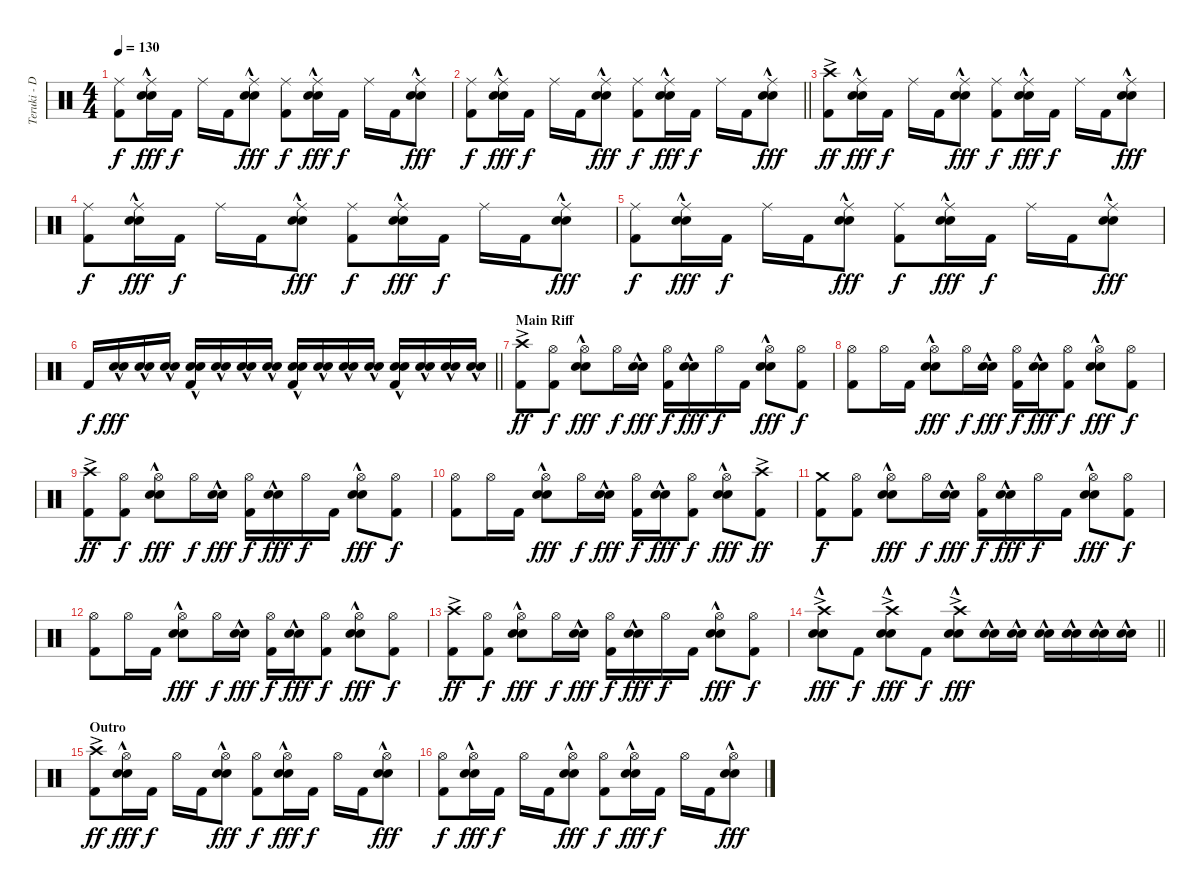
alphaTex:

\track ("Teruki - Drums" "Teruki - D") {instrument percussion}
\staff {score}
\articulation defaults
\ts (4 4)
\tempo 130
\clef neutral
\ks c
("Ride (middle)" "Kick (hit) 2").8{dy f} ("Ride (middle)" "Electric Snare (hit)"{hac} "Snare (hit) 2").16{dy fff} "Kick (hit) 2".16{dy f} "Ride (middle)".16 "Kick (hit) 2".16 ("Ride (middle)" "Electric Snare (hit)"{hac} "Snare (hit) 2").8{dy fff} ("Ride (middle)" "Kick (hit) 2").8{dy f} ("Ride (middle)" "Electric Snare (hit)"{hac} "Snare (hit) 2").16{dy fff} "Kick (hit) 2".16{dy f} "Ride (middle)".16 "Kick (hit) 2".16 ("Ride (middle)" "Electric Snare (hit)"{hac} "Snare (hit) 2").8{dy fff} |
\barLineRight lightlight
("Ride (middle)" "Kick (hit) 2").8{dy f} ("Ride (middle)" "Electric Snare (hit)"{hac} "Snare (hit) 2").16{dy fff} "Kick (hit) 2".16{dy f} "Ride (middle)".16 "Kick (hit) 2".16 ("Ride (middle)" "Electric Snare (hit)"{hac} "Snare (hit) 2").8{dy fff} ("Ride (middle)" "Kick (hit) 2").8{dy f} ("Ride (middle)" "Electric Snare (hit)"{hac} "Snare (hit) 2").16{dy fff} "Kick (hit) 2".16{dy f} "Ride (middle)".16 "Kick (hit) 2".16 ("Ride (middle)" "Electric Snare (hit)"{hac} "Snare (hit) 2").8{dy fff} |
("Crash high (hit)"{ac} "Kick (hit) 2").8{dy ff} ("Ride (middle)" "Electric Snare (hit)"{hac} "Snare (hit) 2").16{dy fff} "Kick (hit) 2".16{dy f} "Ride (middle)".16 "Kick (hit) 2".16 ("Ride (middle)" "Electric Snare (hit)"{hac} "Snare (hit) 2").8{dy fff} ("Ride (middle)" "Kick (hit) 2").8{dy f} ("Ride (middle)" "Electric Snare (hit)"{hac} "Snare (hit) 2").16{dy fff} "Kick (hit) 2".16{dy f} "Ride (middle)".16 "Kick (hit) 2".16 ("Ride (middle)" "Electric Snare (hit)"{hac} "Snare (hit) 2").8{dy fff} |
("Ride (middle)" "Kick (hit) 2").8{dy f} ("Ride (middle)" "Electric Snare (hit)"{hac} "Snare (hit) 2").16{dy fff} "Kick (hit) 2".16{dy f} "Ride (middle)".16 "Kick (hit) 2".16 ("Ride (middle)" "Electric Snare (hit)"{hac} "Snare (hit) 2").8{dy fff} ("Ride (middle)" "Kick (hit) 2").8{dy f} ("Ride (middle)" "Electric Snare (hit)"{hac} "Snare (hit) 2").16{dy fff} "Kick (hit) 2".16{dy f} "Ride (middle)".16 "Kick (hit) 2".16 ("Ride (middle)" "Electric Snare (hit)"{hac} "Snare (hit) 2").8{dy fff} |
("Ride (middle)" "Kick (hit) 2").8{dy f} ("Ride (middle)" "Electric Snare (hit)"{hac} "Snare (hit) 2").16{dy fff} "Kick (hit) 2".16{dy f} "Ride (middle)".16 "Kick (hit) 2".16 ("Ride (middle)" "Electric Snare (hit)"{hac} "Snare (hit) 2").8{dy fff} ("Ride (middle)" "Kick (hit) 2").8{dy f} ("Ride (middle)" "Electric Snare (hit)"{hac} "Snare (hit) 2").16{dy fff} "Kick (hit) 2".16{dy f} "Ride (middle)".16 "Kick (hit) 2".16 ("Ride (middle)" "Electric Snare (hit)"{hac} "Snare (hit) 2").8{dy fff} |
\barLineRight lightlight "Kick (hit) 2".16{dy f}
("Electric Snare (hit)"{hac} "Snare (hit) 2").16{dy fff} ("Electric Snare (hit)"{hac} "Snare (hit) 2").16 ("Electric Snare (hit)"{hac} "Snare (hit) 2").16 ("Electric Snare (hit)"{hac} "Snare (hit) 2" "Kick (hit) 2").16 ("Electric Snare (hit)"{hac} "Snare (hit) 2").16 ("Electric Snare (hit)"{hac} "Snare (hit) 2").16 ("Electric Snare (hit)"{hac} "Snare (hit) 2").16 ("Electric Snare (hit)"{hac} "Snare (hit) 2" "Kick (hit) 2").16 ("Electric Snare (hit)"{hac} "Snare (hit) 2").16 ("Electric Snare (hit)"{hac} "Snare (hit) 2").16 ("Electric Snare (hit)"{hac} "Snare (hit) 2").16 ("Electric Snare (hit)"{hac} "Snare (hit) 2" "Kick (hit) 2").16 ("Electric Snare (hit)"{hac} "Snare (hit) 2").16 ("Electric Snare (hit)"{hac} "Snare (hit) 2").16 ("Electric Snare (hit)"{hac} "Snare (hit) 2").16 |
\section ("" "Main Riff")
("Crash high (hit)"{ac} "Kick (hit) 2").8{dy ff} ("Hi-Hat (open)" "Kick (hit) 2").8{dy f} ("Hi-Hat (open)" "Electric Snare (hit)"{hac} "Snare (hit) 2").8{dy fff} "Hi-Hat (open)".16{dy f} ("Electric Snare (hit)"{hac} "Snare (hit) 2").16{dy fff} ("Hi-Hat (open)" "Kick (hit) 2").16{dy f} ("Electric Snare (hit)"{hac} "Snare (hit) 2").16{dy fff} "Hi-Hat (open)".16{dy f} "Kick (hit) 2".16 ("Hi-Hat (open)" "Electric Snare (hit)"{hac} "Snare (hit) 2").8{dy fff} ("Hi-Hat (open)" "Kick (hit) 2").8{dy f} |
("Hi-Hat (open)" "Kick (hit) 2").8 "Hi-Hat (open)".16 "Kick (hit) 2".16 ("Hi-Hat (open)" "Electric Snare (hit)"{hac} "Snare (hit) 2").8{dy fff} "Hi-Hat (open)".16{dy f} ("Electric Snare (hit)"{hac} "Snare (hit) 2").16{dy fff} ("Hi-Hat (open)" "Kick (hit) 2").16{dy f} ("Electric Snare (hit)"{hac} "Snare (hit) 2").16{dy fff} ("Hi-Hat (open)" "Kick (hit) 2").8{dy f} ("Hi-Hat (open)" "Electric Snare (hit)"{hac} "Snare (hit) 2").8{dy fff} ("Hi-Hat (open)" "Kick (hit) 2").8{dy f} |
("Crash high (hit)"{ac} "Kick (hit) 2").8{dy ff} ("Hi-Hat (open)" "Kick (hit) 2").8{dy f} ("Hi-Hat (open)" "Electric Snare (hit)"{hac} "Snare (hit) 2").8{dy fff} "Hi-Hat (open)".16{dy f} ("Electric Snare (hit)"{hac} "Snare (hit) 2").16{dy fff} ("Hi-Hat (open)" "Kick (hit) 2").16{dy f} ("Electric Snare (hit)"{hac} "Snare (hit) 2").16{dy fff} "Hi-Hat (open)".16{dy f} "Kick (hit) 2".16 ("Hi-Hat (open)" "Electric Snare (hit)"{hac} "Snare (hit) 2").8{dy fff} ("Hi-Hat (open)" "Kick (hit) 2").8{dy f} |
("Hi-Hat (open)" "Kick (hit) 2").8 "Hi-Hat (open)".16 "Kick (hit) 2".16 ("Hi-Hat (open)" "Electric Snare (hit)"{hac} "Snare (hit) 2").8{dy fff} "Hi-Hat (open)".16{dy f} ("Electric Snare (hit)"{hac} "Snare (hit) 2").16{dy fff} ("Hi-Hat (open)" "Kick (hit) 2").16{dy f} ("Electric Snare (hit)"{hac} "Snare (hit) 2").16{dy fff} ("Hi-Hat (open)" "Kick (hit) 2").8{dy f} ("Hi-Hat (open)" "Electric Snare (hit)"{hac} "Snare (hit) 2").8{dy fff} ("Crash high (hit)"{ac} "Kick (hit) 2").8{dy ff} |
("Crash medium (hit)" "Kick (hit) 2").8{dy f} ("Hi-Hat (open)" "Kick (hit) 2").8 ("Hi-Hat (open)" "Electric Snare (hit)"{hac} "Snare (hit) 2").8{dy fff} "Hi-Hat (open)".16{dy f} ("Electric Snare (hit)"{hac} "Snare (hit) 2").16{dy fff} ("Hi-Hat (open)" "Kick (hit) 2").16{dy f} ("Electric Snare (hit)"{hac} "Snare (hit) 2").16{dy fff} "Hi-Hat (open)".16{dy f} "Kick (hit) 2".16 ("Hi-Hat (open)" "Electric Snare (hit)"{hac} "Snare (hit) 2").8{dy fff} ("Hi-Hat (open)" "Kick (hit) 2").8{dy f} |
("Hi-Hat (open)" "Kick (hit) 2").8 "Hi-Hat (open)".16 "Kick (hit) 2".16 ("Hi-Hat (open)" "Electric Snare (hit)"{hac} "Snare (hit) 2").8{dy fff} "Hi-Hat (open)".16{dy f} ("Electric Snare (hit)"{hac} "Snare (hit) 2").16{dy fff} ("Hi-Hat (open)" "Kick (hit) 2").16{dy f} ("Electric Snare (hit)"{hac} "Snare (hit) 2").16{dy fff} ("Hi-Hat (open)" "Kick (hit) 2").8{dy f} ("Hi-Hat (open)" "Electric Snare (hit)"{hac} "Snare (hit) 2").8{dy fff} ("Hi-Hat (open)" "Kick (hit) 2").8{dy f} |
("Crash high (hit)"{ac} "Kick (hit) 2").8{dy ff} ("Hi-Hat (open)" "Kick (hit) 2").8{dy f} ("Hi-Hat (open)" "Electric Snare (hit)"{hac} "Snare (hit) 2").8{dy fff} "Hi-Hat (open)".16{dy f} ("Electric Snare (hit)"{hac} "Snare (hit) 2").16{dy fff} ("Hi-Hat (open)" "Kick (hit) 2").16{dy f} ("Electric Snare (hit)"{hac} "Snare (hit) 2").16{dy fff} "Hi-Hat (open)".16{dy f} "Kick (hit) 2".16 ("Hi-Hat (open)" "Electric Snare (hit)"{hac} "Snare (hit) 2").8{dy fff} ("Hi-Hat (open)" "Kick (hit) 2").8{dy f} |
\barLineRight lightlight
("Crash high (hit)"{ac} "Electric Snare (hit)"{hac} "Snare (hit) 2").8{dy fff} "Kick (hit) 2".8{dy f} ("Crash high (hit)"{ac} "Electric Snare (hit)"{hac} "Snare (hit) 2").8{dy fff} "Kick (hit) 2".8{dy f} ("Crash high (hit)"{ac} "Electric Snare (hit)"{hac} "Snare (hit) 2").8{dy fff} ("Electric Snare (hit)"{hac} "Snare (hit) 2").16 ("Electric Snare (hit)"{hac} "Snare (hit) 2").16 ("Electric Snare (hit)"{hac} "Snare (hit) 2").16 ("Electric Snare (hit)"{hac} "Snare (hit) 2").16 ("Electric Snare (hit)"{hac} "Snare (hit) 2").16 ("Electric Snare (hit)"{hac} "Snare (hit) 2").16 |
\section ("" "Outro")
("Crash high (hit)"{ac} "Kick (hit) 2").8{dy ff} ("Hi-Hat (open)" "Electric Snare (hit)"{hac} "Snare (hit) 2").16{dy fff} "Kick (hit) 2".16{dy f} "Hi-Hat (open)".16 "Kick (hit) 2".16 ("Hi-Hat (open)" "Electric Snare (hit)"{hac} "Snare (hit) 2").8{dy fff} ("Hi-Hat (open)" "Kick (hit) 2").8{dy f} ("Hi-Hat (open)" "Electric Snare (hit)"{hac} "Snare (hit) 2").16{dy fff} "Kick (hit) 2".16{dy f} "Hi-Hat (open)".16 "Kick (hit) 2".16 ("Hi-Hat (open)" "Electric Snare (hit)"{hac} "Snare (hit) 2").8{dy fff} |
("Hi-Hat (open)" "Kick (hit) 2").8{dy f} ("Hi-Hat (open)" "Electric Snare (hit)"{hac} "Snare (hit) 2").16{dy fff} "Kick (hit) 2".16{dy f} "Hi-Hat (open)".16 "Kick (hit) 2".16 ("Hi-Hat (open)" "Electric Snare (hit)"{hac} "Snare (hit) 2").8{dy fff} ("Hi-Hat (open)" "Kick (hit) 2").8{dy f} ("Hi-Hat (open)" "Electric Snare (hit)"{hac} "Snare (hit) 2").16{dy fff} "Kick (hit) 2".16{dy f} "Hi-Hat (open)".16 "Kick (hit) 2".16 ("Hi-Hat (open)" "Electric Snare (hit)"{hac} "Snare (hit) 2").8{dy fff}
